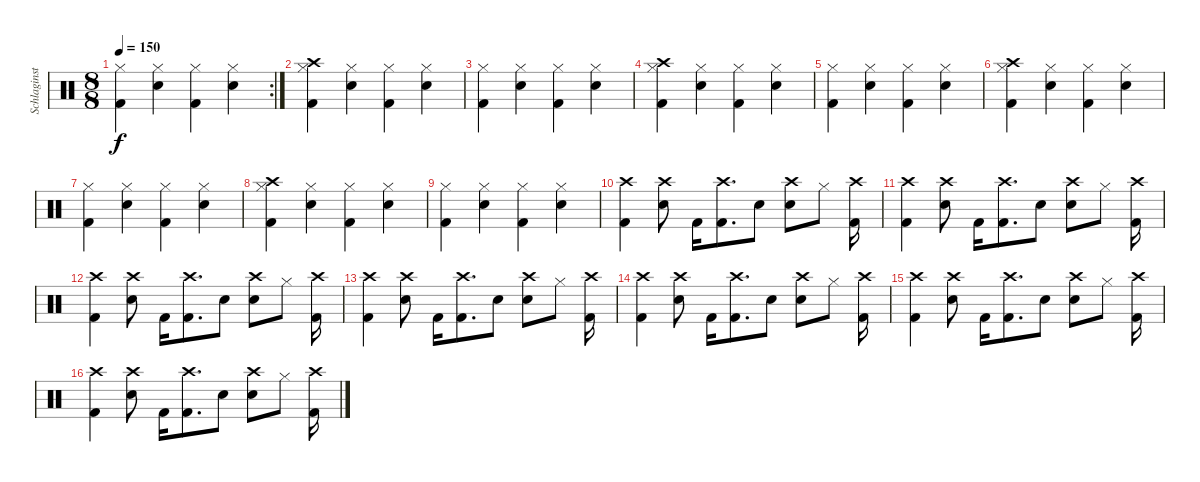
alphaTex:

\track ("Schlaginstrumente - Auswahl" "Schlaginst") {instrument percussion}
\staff {score}
\articulation defaults
\rc 2
\ts (8 8)
\tempo 150
\clef neutral
\ks c
("Hi-Hat (closed)" "Kick (hit) 2").4{dy f} ("Hi-Hat (closed)" "Snare (hit) 2").4 ("Hi-Hat (closed)" "Kick (hit) 2").4 ("Hi-Hat (closed)" "Snare (hit) 2").4 |
("Hi-Hat (closed)" "Kick (hit) 2" "Crash high (hit)").4 ("Hi-Hat (closed)" "Snare (hit) 2").4 ("Hi-Hat (closed)" "Kick (hit) 2").4 ("Hi-Hat (closed)" "Snare (hit) 2").4 |
("Hi-Hat (closed)" "Kick (hit) 2").4 ("Hi-Hat (closed)" "Snare (hit) 2").4 ("Hi-Hat (closed)" "Kick (hit) 2").4 ("Hi-Hat (closed)" "Snare (hit) 2").4 |
("Hi-Hat (closed)" "Kick (hit) 2" "Crash high (hit)").4 ("Hi-Hat (closed)" "Snare (hit) 2").4 ("Hi-Hat (closed)" "Kick (hit) 2").4 ("Hi-Hat (closed)" "Snare (hit) 2").4 |
("Hi-Hat (closed)" "Kick (hit) 2").4 ("Hi-Hat (closed)" "Snare (hit) 2").4 ("Hi-Hat (closed)" "Kick (hit) 2").4 ("Hi-Hat (closed)" "Snare (hit) 2").4 |
("Hi-Hat (closed)" "Kick (hit) 2" "Crash high (hit)").4 ("Hi-Hat (closed)" "Snare (hit) 2").4 ("Hi-Hat (closed)" "Kick (hit) 2").4 ("Hi-Hat (closed)" "Snare (hit) 2").4 |
("Hi-Hat (closed)" "Kick (hit) 2").4 ("Hi-Hat (closed)" "Snare (hit) 2").4 ("Hi-Hat (closed)" "Kick (hit) 2").4 ("Hi-Hat (closed)" "Snare (hit) 2").4 |
("Hi-Hat (closed)" "Kick (hit) 2" "Crash high (hit)").4 ("Hi-Hat (closed)" "Snare (hit) 2").4 ("Hi-Hat (closed)" "Kick (hit) 2").4 ("Hi-Hat (closed)" "Snare (hit) 2").4 |
("Hi-Hat (closed)" "Kick (hit) 2").4 ("Hi-Hat (closed)" "Snare (hit) 2").4 ("Hi-Hat (closed)" "Kick (hit) 2").4 ("Hi-Hat (closed)" "Snare (hit) 2").4 |
("Kick (hit) 2" "Crash high (hit)").4 ("Snare (hit) 2" "Crash high (hit)").8 "Kick (hit) 2".16 ("Kick (hit) 2" "Crash high (hit)").8{d} "Snare (hit) 2".8 ("Snare (hit) 2" "Crash high (hit)").8 "Hi-Hat (closed)".8 ("Kick (hit) 2" "Crash high (hit)").16 |
("Kick (hit) 2" "Crash high (hit)").4 ("Snare (hit) 2" "Crash high (hit)").8 "Kick (hit) 2".16 ("Kick (hit) 2" "Crash high (hit)").8{d} "Snare (hit) 2".8 ("Snare (hit) 2" "Crash high (hit)").8 "Hi-Hat (closed)".8 ("Kick (hit) 2" "Crash high (hit)").16 |
("Kick (hit) 2" "Crash high (hit)").4 ("Snare (hit) 2" "Crash high (hit)").8 "Kick (hit) 2".16 ("Kick (hit) 2" "Crash high (hit)").8{d} "Snare (hit) 2".8 ("Snare (hit) 2" "Crash high (hit)").8 "Hi-Hat (closed)".8 ("Kick (hit) 2" "Crash high (hit)").16 |
("Kick (hit) 2" "Crash high (hit)").4 ("Snare (hit) 2" "Crash high (hit)").8 "Kick (hit) 2".16 ("Kick (hit) 2" "Crash high (hit)").8{d} "Snare (hit) 2".8 ("Snare (hit) 2" "Crash high (hit)").8 "Hi-Hat (closed)".8 ("Kick (hit) 2" "Crash high (hit)").16 |
("Kick (hit) 2" "Crash high (hit)").4 ("Snare (hit) 2" "Crash high (hit)").8 "Kick (hit) 2".16 ("Kick (hit) 2" "Crash high (hit)").8{d} "Snare (hit) 2".8 ("Snare (hit) 2" "Crash high (hit)").8 "Hi-Hat (closed)".8 ("Kick (hit) 2" "Crash high (hit)").16 |
("Kick (hit) 2" "Crash high (hit)").4 ("Snare (hit) 2" "Crash high (hit)").8 "Kick (hit) 2".16 ("Kick (hit) 2" "Crash high (hit)").8{d} "Snare (hit) 2".8 ("Snare (hit) 2" "Crash high (hit)").8 "Hi-Hat (closed)".8 ("Kick (hit) 2" "Crash high (hit)").16 |
("Kick (hit) 2" "Crash high (hit)").4 ("Snare (hit) 2" "Crash high (hit)").8 "Kick (hit) 2".16 ("Kick (hit) 2" "Crash high (hit)").8{d} "Snare (hit) 2".8 ("Snare (hit) 2" "Crash high (hit)").8 "Hi-Hat (closed)".8 ("Kick (hit) 2" "Crash high (hit)").16
